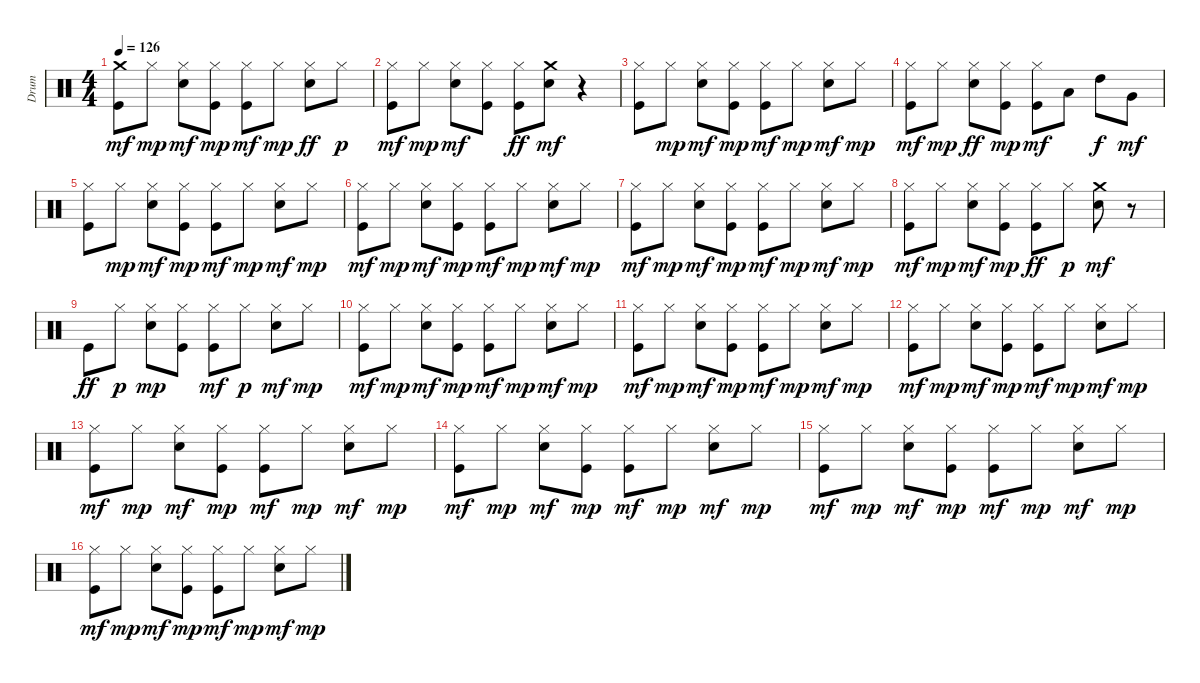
\track ("Drum" "Drum") {instrument percussion}
\staff {score}
\articulation defaults
\ts (4 4)
\tempo 126
\clef neutral
\ks c
("Kick (hit)" "Crash medium (hit)").8{dy mf} "Hi-Hat (closed)".8{dy mp} ("Snare (hit) 2" "Hi-Hat (closed)").8{dy mf} ("Kick (hit)" "Hi-Hat (closed)").8{dy mp} ("Kick (hit)" "Hi-Hat (closed)").8{dy mf} "Hi-Hat (closed)".8{dy mp} ("Snare (hit) 2" "Hi-Hat (closed)").8{dy ff} "Hi-Hat (closed)".8{dy p} |
("Kick (hit)" "Hi-Hat (closed)").8{dy mf} "Hi-Hat (closed)".8{dy mp} ("Snare (hit) 2" "Hi-Hat (closed)").8{dy mf} ("Kick (hit)" "Hi-Hat (closed)").8 ("Kick (hit)" "Hi-Hat (closed)").8{dy ff} ("Snare (hit) 2" "Crash medium (hit)").8{dy mf} r.4 |
("Kick (hit)" "Hi-Hat (closed)").8 "Hi-Hat (closed)".8{dy mp} ("Snare (hit) 2" "Hi-Hat (closed)").8{dy mf} ("Kick (hit)" "Hi-Hat (closed)").8{dy mp} ("Kick (hit)" "Hi-Hat (closed)").8{dy mf} "Hi-Hat (closed)".8{dy mp} ("Snare (hit) 2" "Hi-Hat (closed)").8{dy mf} "Hi-Hat (closed)".8{dy mp} |
("Kick (hit)" "Hi-Hat (closed)").8{dy mf} "Hi-Hat (closed)".8{dy mp} ("Snare (hit) 2" "Hi-Hat (closed)").8{dy ff} ("Kick (hit)" "Hi-Hat (closed)").8{dy mp} ("Kick (hit)" "Hi-Hat (closed)").8{dy mf} "Low Tom (hit)".8 "High Tom (hit)".8{dy f} "Very Low Tom (hit)".8{dy mf} |
("Kick (hit)" "Hi-Hat (closed)").8 "Hi-Hat (closed)".8{dy mp} ("Snare (hit) 2" "Hi-Hat (closed)").8{dy mf} ("Kick (hit)" "Hi-Hat (closed)").8{dy mp} ("Kick (hit)" "Hi-Hat (closed)").8{dy mf} "Hi-Hat (closed)".8{dy mp} ("Snare (hit) 2" "Hi-Hat (closed)").8{dy mf} "Hi-Hat (closed)".8{dy mp} |
("Kick (hit)" "Hi-Hat (closed)").8{dy mf} "Hi-Hat (closed)".8{dy mp} ("Snare (hit) 2" "Hi-Hat (closed)").8{dy mf} ("Kick (hit)" "Hi-Hat (closed)").8{dy mp} ("Kick (hit)" "Hi-Hat (closed)").8{dy mf} "Hi-Hat (closed)".8{dy mp} ("Snare (hit) 2" "Hi-Hat (closed)").8{dy mf} "Hi-Hat (closed)".8{dy mp} |
("Kick (hit)" "Hi-Hat (closed)").8{dy mf} "Hi-Hat (closed)".8{dy mp} ("Snare (hit) 2" "Hi-Hat (closed)").8{dy mf} ("Kick (hit)" "Hi-Hat (closed)").8{dy mp} ("Kick (hit)" "Hi-Hat (closed)").8{dy mf} "Hi-Hat (closed)".8{dy mp} ("Snare (hit) 2" "Hi-Hat (closed)").8{dy mf} "Hi-Hat (closed)".8{dy mp} |
("Kick (hit)" "Hi-Hat (closed)").8{dy mf} "Hi-Hat (closed)".8{dy mp} ("Snare (hit) 2" "Hi-Hat (closed)").8{dy mf} ("Kick (hit)" "Hi-Hat (closed)").8{dy mp} ("Kick (hit)" "Hi-Hat (closed)").8{dy ff} "Hi-Hat (closed)".8{dy p} ("Snare (hit) 2" "Crash medium (hit)").8{dy mf} r.8 |
"Kick (hit)".8{dy ff} "Hi-Hat (closed)".8{dy p} ("Snare (hit) 2" "Hi-Hat (closed)").8{dy mp} ("Kick (hit)" "Hi-Hat (closed)").8 ("Kick (hit)" "Hi-Hat (closed)").8{dy mf} "Hi-Hat (closed)".8{dy p} ("Snare (hit) 2" "Hi-Hat (closed)").8{dy mf} "Hi-Hat (closed)".8{dy mp} |
("Kick (hit)" "Hi-Hat (closed)").8{dy mf} "Hi-Hat (closed)".8{dy mp} ("Snare (hit) 2" "Hi-Hat (closed)").8{dy mf} ("Kick (hit)" "Hi-Hat (closed)").8{dy mp} ("Kick (hit)" "Hi-Hat (closed)").8{dy mf} "Hi-Hat (closed)".8{dy mp} ("Snare (hit) 2" "Hi-Hat (closed)").8{dy mf} "Hi-Hat (closed)".8{dy mp} |
("Kick (hit)" "Hi-Hat (closed)").8{dy mf} "Hi-Hat (closed)".8{dy mp} ("Snare (hit) 2" "Hi-Hat (closed)").8{dy mf} ("Kick (hit)" "Hi-Hat (closed)").8{dy mp} ("Kick (hit)" "Hi-Hat (closed)").8{dy mf} "Hi-Hat (closed)".8{dy mp} ("Snare (hit) 2" "Hi-Hat (closed)").8{dy mf} "Hi-Hat (closed)".8{dy mp} |
("Kick (hit)" "Hi-Hat (closed)").8{dy mf} "Hi-Hat (closed)".8{dy mp} ("Snare (hit) 2" "Hi-Hat (closed)").8{dy mf} ("Kick (hit)" "Hi-Hat (closed)").8{dy mp} ("Kick (hit)" "Hi-Hat (closed)").8{dy mf} "Hi-Hat (closed)".8{dy mp} ("Snare (hit) 2" "Hi-Hat (closed)").8{dy mf} "Hi-Hat (closed)".8{dy mp} |
("Kick (hit)" "Hi-Hat (closed)").8{dy mf} "Hi-Hat (closed)".8{dy mp} ("Snare (hit) 2" "Hi-Hat (closed)").8{dy mf} ("Kick (hit)" "Hi-Hat (closed)").8{dy mp} ("Kick (hit)" "Hi-Hat (closed)").8{dy mf} "Hi-Hat (closed)".8{dy mp} ("Snare (hit) 2" "Hi-Hat (closed)").8{dy mf} "Hi-Hat (closed)".8{dy mp} |
("Kick (hit)" "Hi-Hat (closed)").8{dy mf} "Hi-Hat (closed)".8{dy mp} ("Snare (hit) 2" "Hi-Hat (closed)").8{dy mf} ("Kick (hit)" "Hi-Hat (closed)").8{dy mp} ("Kick (hit)" "Hi-Hat (closed)").8{dy mf} "Hi-Hat (closed)".8{dy mp} ("Snare (hit) 2" "Hi-Hat (closed)").8{dy mf} "Hi-Hat (closed)".8{dy mp} |
("Kick (hit)" "Hi-Hat (closed)").8{dy mf} "Hi-Hat (closed)".8{dy mp} ("Snare (hit) 2" "Hi-Hat (closed)").8{dy mf} ("Kick (hit)" "Hi-Hat (closed)").8{dy mp} ("Kick (hit)" "Hi-Hat (closed)").8{dy mf} "Hi-Hat (closed)".8{dy mp} ("Snare (hit) 2" "Hi-Hat (closed)").8{dy mf} "Hi-Hat (closed)".8{dy mp} |
("Kick (hit)" "Hi-Hat (closed)").8{dy mf} "Hi-Hat (closed)".8{dy mp} ("Snare (hit) 2" "Hi-Hat (closed)").8{dy mf} ("Kick (hit)" "Hi-Hat (closed)").8{dy mp} ("Kick (hit)" "Hi-Hat (closed)").8{dy mf} "Hi-Hat (closed)".8{dy mp} ("Snare (hit) 2" "Hi-Hat (closed)").8{dy mf} "Hi-Hat (closed)".8{dy mp}
